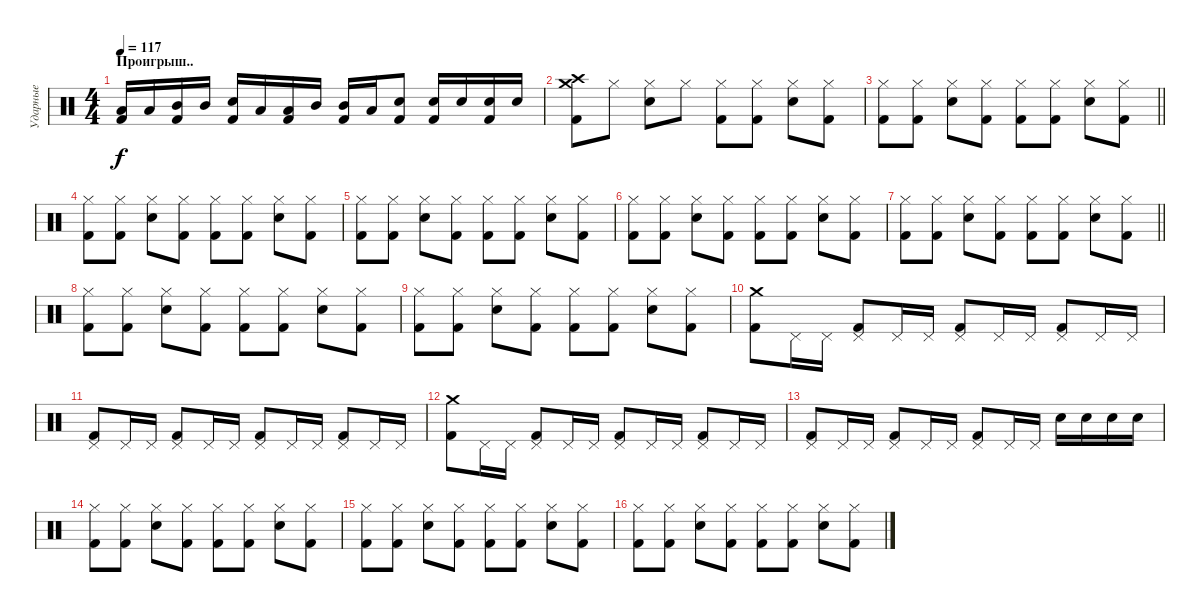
\track ("Ударные" "Ударные") {instrument percussion}
\staff {score}
\articulation defaults
\ts (4 4)
\section ("" "Проигрыш..")
\tempo 117
\clef neutral
\ks c
("Low Tom (hit)" "Kick (hit) 2").16{dy f} "Low Tom (hit)".16 ("Mid Tom (hit)" "Kick (hit) 2").16 "Mid Tom (hit)".16 ("Electric Snare (hit)" "Kick (hit) 2").16 "Low Tom (hit)".16 ("Low Tom (hit)" "Kick (hit) 2").16 "Mid Tom (hit)".16 ("Mid Tom (hit)" "Kick (hit) 2").16 "Low Floor Tom (hit)".16 ("Electric Snare (hit)" "Kick (hit) 2").8 ("Electric Snare (hit)" "Kick (hit) 2").16 "Electric Snare (hit)".16 ("Electric Snare (hit)" "Kick (hit) 2").16 "Electric Snare (hit)".16 |
("Crash high (hit)" "Crash medium (hit)" "Kick (hit) 2").8 "Hi-Hat (closed)".8 ("Hi-Hat (closed)" "Electric Snare (hit)").8 "Hi-Hat (closed)".8 ("Hi-Hat (closed)" "Kick (hit) 2").8 ("Hi-Hat (closed)" "Kick (hit) 2").8 ("Hi-Hat (closed)" "Electric Snare (hit)").8 ("Hi-Hat (closed)" "Kick (hit) 2").8 |
\barLineRight lightlight
("Hi-Hat (closed)" "Kick (hit) 2").8 ("Hi-Hat (closed)" "Kick (hit) 2").8 ("Hi-Hat (closed)" "Electric Snare (hit)").8 ("Hi-Hat (closed)" "Kick (hit) 2").8 ("Hi-Hat (closed)" "Kick (hit) 2").8 ("Hi-Hat (closed)" "Kick (hit) 2").8 ("Hi-Hat (closed)" "Electric Snare (hit)").8 ("Hi-Hat (closed)" "Kick (hit) 2").8 |
("Hi-Hat (closed)" "Kick (hit) 2").8 ("Hi-Hat (closed)" "Kick (hit) 2").8 ("Hi-Hat (closed)" "Electric Snare (hit)").8 ("Hi-Hat (closed)" "Kick (hit) 2").8 ("Hi-Hat (closed)" "Kick (hit) 2").8 ("Hi-Hat (closed)" "Kick (hit) 2").8 ("Hi-Hat (closed)" "Electric Snare (hit)").8 ("Hi-Hat (closed)" "Kick (hit) 2").8 |
("Hi-Hat (closed)" "Kick (hit) 2").8 ("Hi-Hat (closed)" "Kick (hit) 2").8 ("Hi-Hat (closed)" "Electric Snare (hit)").8 ("Hi-Hat (closed)" "Kick (hit) 2").8 ("Hi-Hat (closed)" "Kick (hit) 2").8 ("Hi-Hat (closed)" "Kick (hit) 2").8 ("Hi-Hat (closed)" "Electric Snare (hit)").8 ("Hi-Hat (closed)" "Kick (hit) 2").8 |
("Hi-Hat (closed)" "Kick (hit) 2").8 ("Hi-Hat (closed)" "Kick (hit) 2").8 ("Hi-Hat (closed)" "Electric Snare (hit)").8 ("Hi-Hat (closed)" "Kick (hit) 2").8 ("Hi-Hat (closed)" "Kick (hit) 2").8 ("Hi-Hat (closed)" "Kick (hit) 2").8 ("Hi-Hat (closed)" "Electric Snare (hit)").8 ("Hi-Hat (closed)" "Kick (hit) 2").8 |
\barLineRight lightlight
("Hi-Hat (closed)" "Kick (hit) 2").8 ("Hi-Hat (closed)" "Kick (hit) 2").8 ("Hi-Hat (closed)" "Electric Snare (hit)").8 ("Hi-Hat (closed)" "Kick (hit) 2").8 ("Hi-Hat (closed)" "Kick (hit) 2").8 ("Hi-Hat (closed)" "Kick (hit) 2").8 ("Hi-Hat (closed)" "Electric Snare (hit)").8 ("Hi-Hat (closed)" "Kick (hit) 2").8 |
("Hi-Hat (closed)" "Kick (hit) 2").8 ("Hi-Hat (closed)" "Kick (hit) 2").8 ("Hi-Hat (closed)" "Electric Snare (hit)").8 ("Hi-Hat (closed)" "Kick (hit) 2").8 ("Hi-Hat (closed)" "Kick (hit) 2").8 ("Hi-Hat (closed)" "Kick (hit) 2").8 ("Hi-Hat (closed)" "Electric Snare (hit)").8 ("Hi-Hat (closed)" "Kick (hit) 2").8 |
("Hi-Hat (closed)" "Kick (hit) 2").8 ("Hi-Hat (closed)" "Kick (hit) 2").8 ("Hi-Hat (closed)" "Electric Snare (hit)").8 ("Hi-Hat (closed)" "Kick (hit) 2").8 ("Hi-Hat (closed)" "Kick (hit) 2").8 ("Hi-Hat (closed)" "Kick (hit) 2").8 ("Hi-Hat (closed)" "Electric Snare (hit)").8 ("Hi-Hat (closed)" "Kick (hit) 2").8 |
("Crash medium (hit)" "Kick (hit) 2").8 "Pedal Hi-Hat (hit)".16 "Pedal Hi-Hat (hit)".16 ("Pedal Hi-Hat (hit)" "Kick (hit) 2").8 "Pedal Hi-Hat (hit)".16 "Pedal Hi-Hat (hit)".16 ("Pedal Hi-Hat (hit)" "Kick (hit) 2").8 "Pedal Hi-Hat (hit)".16 "Pedal Hi-Hat (hit)".16 ("Pedal Hi-Hat (hit)" "Kick (hit) 2").8 "Pedal Hi-Hat (hit)".16 "Pedal Hi-Hat (hit)".16 |
("Pedal Hi-Hat (hit)" "Kick (hit) 2").8 "Pedal Hi-Hat (hit)".16 "Pedal Hi-Hat (hit)".16 ("Pedal Hi-Hat (hit)" "Kick (hit) 2").8 "Pedal Hi-Hat (hit)".16 "Pedal Hi-Hat (hit)".16 ("Pedal Hi-Hat (hit)" "Kick (hit) 2").8 "Pedal Hi-Hat (hit)".16 "Pedal Hi-Hat (hit)".16 ("Pedal Hi-Hat (hit)" "Kick (hit) 2").8 "Pedal Hi-Hat (hit)".16 "Pedal Hi-Hat (hit)".16 |
("Crash medium (hit)" "Kick (hit) 2").8 "Pedal Hi-Hat (hit)".16 "Pedal Hi-Hat (hit)".16 ("Pedal Hi-Hat (hit)" "Kick (hit) 2").8 "Pedal Hi-Hat (hit)".16 "Pedal Hi-Hat (hit)".16 ("Pedal Hi-Hat (hit)" "Kick (hit) 2").8 "Pedal Hi-Hat (hit)".16 "Pedal Hi-Hat (hit)".16 ("Pedal Hi-Hat (hit)" "Kick (hit) 2").8 "Pedal Hi-Hat (hit)".16 "Pedal Hi-Hat (hit)".16 |
("Pedal Hi-Hat (hit)" "Kick (hit) 2").8 "Pedal Hi-Hat (hit)".16 "Pedal Hi-Hat (hit)".16 ("Pedal Hi-Hat (hit)" "Kick (hit) 2").8 "Pedal Hi-Hat (hit)".16 "Pedal Hi-Hat (hit)".16 ("Pedal Hi-Hat (hit)" "Kick (hit) 2").8 "Pedal Hi-Hat (hit)".16 "Pedal Hi-Hat (hit)".16 "Electric Snare (hit)".16 "Electric Snare (hit)".16 "Electric Snare (hit)".16 "Electric Snare (hit)".16 |
("Hi-Hat (closed)" "Kick (hit) 2").8 ("Hi-Hat (closed)" "Kick (hit) 2").8 ("Hi-Hat (closed)" "Electric Snare (hit)").8 ("Hi-Hat (closed)" "Kick (hit) 2").8 ("Hi-Hat (closed)" "Kick (hit) 2").8 ("Hi-Hat (closed)" "Kick (hit) 2").8 ("Hi-Hat (closed)" "Electric Snare (hit)").8 ("Hi-Hat (closed)" "Kick (hit) 2").8 |
("Hi-Hat (closed)" "Kick (hit) 2").8 ("Hi-Hat (closed)" "Kick (hit) 2").8 ("Hi-Hat (closed)" "Electric Snare (hit)").8 ("Hi-Hat (closed)" "Kick (hit) 2").8 ("Hi-Hat (closed)" "Kick (hit) 2").8 ("Hi-Hat (closed)" "Kick (hit) 2").8 ("Hi-Hat (closed)" "Electric Snare (hit)").8 ("Hi-Hat (closed)" "Kick (hit) 2").8 |
("Hi-Hat (closed)" "Kick (hit) 2").8 ("Hi-Hat (closed)" "Kick (hit) 2").8 ("Hi-Hat (closed)" "Electric Snare (hit)").8 ("Hi-Hat (closed)" "Kick (hit) 2").8 ("Hi-Hat (closed)" "Kick (hit) 2").8 ("Hi-Hat (closed)" "Kick (hit) 2").8 ("Hi-Hat (closed)" "Electric Snare (hit)").8 ("Hi-Hat (closed)" "Kick (hit) 2").8
